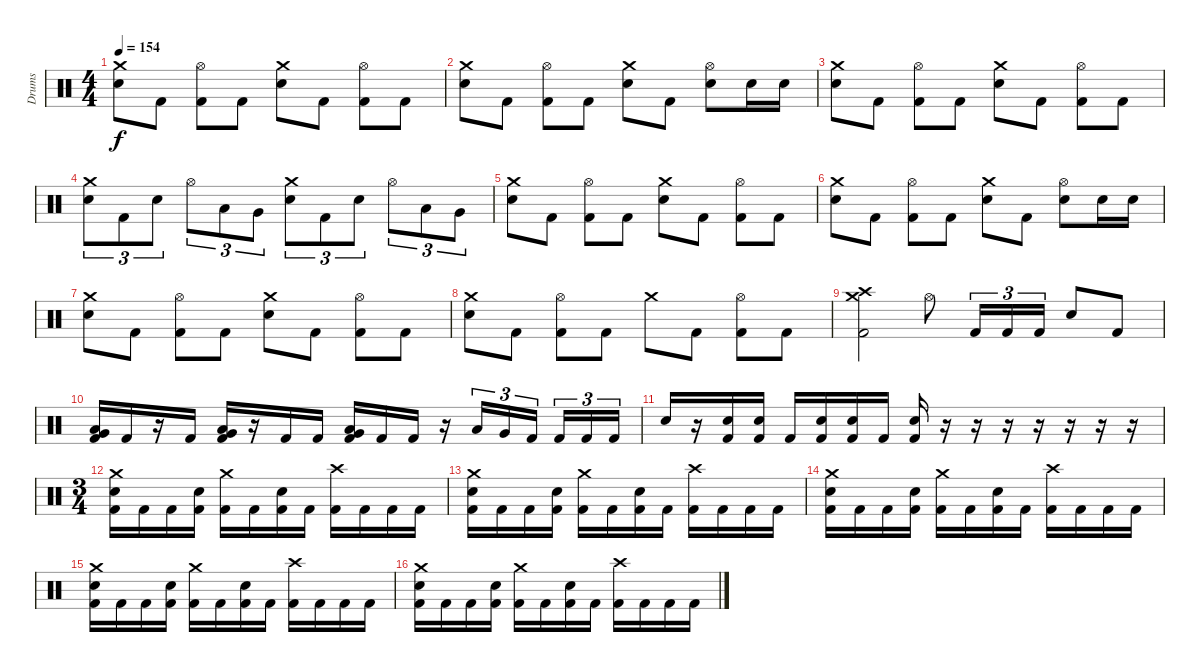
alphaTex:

\track ("Drums" "Drums") {instrument percussion}
\staff {score}
\articulation defaults
\ts (4 4)
\tempo 154
\clef neutral
\ks c
("Crash medium (hit)" "Electric Snare (hit)").8{dy f} "Kick (hit) 2".8 ("Hi-Hat (open)" "Kick (hit) 2").8 "Kick (hit) 2".8 ("Crash medium (hit)" "Electric Snare (hit)").8 "Kick (hit) 2".8 ("Hi-Hat (open)" "Kick (hit) 2").8 "Kick (hit) 2".8 |
("Crash medium (hit)" "Electric Snare (hit)").8 "Kick (hit) 2".8 ("Hi-Hat (open)" "Kick (hit) 2").8 "Kick (hit) 2".8 ("Crash medium (hit)" "Electric Snare (hit)").8 "Kick (hit) 2".8 ("Hi-Hat (open)" "Electric Snare (hit)").8 "Electric Snare (hit)".16 "Electric Snare (hit)".16 |
("Crash medium (hit)" "Electric Snare (hit)").8 "Kick (hit) 2".8 ("Hi-Hat (open)" "Kick (hit) 2").8 "Kick (hit) 2".8 ("Crash medium (hit)" "Electric Snare (hit)").8 "Kick (hit) 2".8 ("Hi-Hat (open)" "Kick (hit) 2").8 "Kick (hit) 2".8 |
("Crash medium (hit)" "Electric Snare (hit)").8{tu (3 2)} "Kick (hit) 2".8{tu (3 2)} "Electric Snare (hit)".8{tu (3 2)} "Hi-Hat (open)".8{tu (3 2)} "Low Tom (hit)".8{tu (3 2)} "Very Low Tom (hit)".8{tu (3 2)} ("Crash medium (hit)" "Electric Snare (hit)").8{tu (3 2)} "Kick (hit) 2".8{tu (3 2)} "Electric Snare (hit)".8{tu (3 2)} "Hi-Hat (open)".8{tu (3 2)} "Low Tom (hit)".8{tu (3 2)} "Very Low Tom (hit)".8{tu (3 2)} |
("Crash medium (hit)" "Electric Snare (hit)").8 "Kick (hit) 2".8 ("Hi-Hat (open)" "Kick (hit) 2").8 "Kick (hit) 2".8 ("Crash medium (hit)" "Electric Snare (hit)").8 "Kick (hit) 2".8 ("Hi-Hat (open)" "Kick (hit) 2").8 "Kick (hit) 2".8 |
("Crash medium (hit)" "Electric Snare (hit)").8 "Kick (hit) 2".8 ("Hi-Hat (open)" "Kick (hit) 2").8 "Kick (hit) 2".8 ("Crash medium (hit)" "Electric Snare (hit)").8 "Kick (hit) 2".8 ("Hi-Hat (open)" "Electric Snare (hit)").8 "Electric Snare (hit)".16 "Electric Snare (hit)".16 |
("Crash medium (hit)" "Electric Snare (hit)").8 "Kick (hit) 2".8 ("Hi-Hat (open)" "Kick (hit) 2").8 "Kick (hit) 2".8 ("Crash medium (hit)" "Electric Snare (hit)").8 "Kick (hit) 2".8 ("Hi-Hat (open)" "Kick (hit) 2").8 "Kick (hit) 2".8 |
("Crash medium (hit)" "Electric Snare (hit)").8 "Kick (hit) 2".8 ("Hi-Hat (open)" "Kick (hit) 2").8 "Kick (hit) 2".8 "Crash medium (hit)".8 "Kick (hit) 2".8 ("Hi-Hat (open)" "Kick (hit) 2").8 "Kick (hit) 2".8 |
("Crash medium (hit)" "Crash high (hit)" "Kick (hit) 2").2 "Hi-Hat (open)".8 "Kick (hit) 2".16{tu (3 2)} "Kick (hit) 2".16{tu (3 2)} "Kick (hit) 2".16{tu (3 2)} "Electric Snare (hit)".8 "Kick (hit) 2".8 |
("Very Low Tom (hit)" "Low Floor Tom (hit)" "Kick (hit) 2").16 "Kick (hit) 2".16 r.16 "Kick (hit) 2".16 ("Very Low Tom (hit)" "Low Floor Tom (hit)" "Kick (hit) 2").16 r.16 "Kick (hit) 2".16 "Kick (hit) 2".16 ("Very Low Tom (hit)" "Low Floor Tom (hit)" "Kick (hit) 2").16 "Kick (hit) 2".16 "Kick (hit) 2".16 r.16 "Low Tom (hit)".16{tu (3 2)} "Very Low Tom (hit)".16{tu (3 2)} "Kick (hit) 2".16{tu (3 2)} "Kick (hit) 2".16{tu (3 2)} "Kick (hit) 2".16{tu (3 2)} "Kick (hit) 2".16{tu (3 2)} |
"Electric Snare (hit)".16 r.16 ("Electric Snare (hit)" "Kick (hit) 2").16 ("Electric Snare (hit)" "Kick (hit) 2").16 "Kick (hit) 2".16 ("Electric Snare (hit)" "Kick (hit) 2").16 ("Electric Snare (hit)" "Kick (hit) 2").16 "Kick (hit) 2".16 ("Electric Snare (hit)" "Kick (hit) 2").16 r.16 r.16 r.16 r.16 r.16 r.16 r.16 |
\ts (3 4)
("Crash medium (hit)" "Electric Snare (hit)" "Kick (hit) 2").16 "Kick (hit) 2".16 "Kick (hit) 2".16 ("Electric Snare (hit)" "Kick (hit) 2").16 ("Crash medium (hit)" "Kick (hit) 2").16 "Kick (hit) 2".16 ("Electric Snare (hit)" "Kick (hit) 2").16 "Kick (hit) 2".16 ("Crash high (hit)" "Kick (hit) 2").16 "Kick (hit) 2".16 "Kick (hit) 2".16 "Kick (hit) 2".16 |
("Crash medium (hit)" "Electric Snare (hit)" "Kick (hit) 2").16 "Kick (hit) 2".16 "Kick (hit) 2".16 ("Electric Snare (hit)" "Kick (hit) 2").16 ("Crash medium (hit)" "Kick (hit) 2").16 "Kick (hit) 2".16 ("Electric Snare (hit)" "Kick (hit) 2").16 "Kick (hit) 2".16 ("Crash high (hit)" "Kick (hit) 2").16 "Kick (hit) 2".16 "Kick (hit) 2".16 "Kick (hit) 2".16 |
("Crash medium (hit)" "Electric Snare (hit)" "Kick (hit) 2").16 "Kick (hit) 2".16 "Kick (hit) 2".16 ("Electric Snare (hit)" "Kick (hit) 2").16 ("Crash medium (hit)" "Kick (hit) 2").16 "Kick (hit) 2".16 ("Electric Snare (hit)" "Kick (hit) 2").16 "Kick (hit) 2".16 ("Crash high (hit)" "Kick (hit) 2").16 "Kick (hit) 2".16 "Kick (hit) 2".16 "Kick (hit) 2".16 |
("Crash medium (hit)" "Electric Snare (hit)" "Kick (hit) 2").16 "Kick (hit) 2".16 "Kick (hit) 2".16 ("Electric Snare (hit)" "Kick (hit) 2").16 ("Crash medium (hit)" "Kick (hit) 2").16 "Kick (hit) 2".16 ("Electric Snare (hit)" "Kick (hit) 2").16 "Kick (hit) 2".16 ("Crash high (hit)" "Kick (hit) 2").16 "Kick (hit) 2".16 "Kick (hit) 2".16 "Kick (hit) 2".16 |
("Crash medium (hit)" "Electric Snare (hit)" "Kick (hit) 2").16 "Kick (hit) 2".16 "Kick (hit) 2".16 ("Electric Snare (hit)" "Kick (hit) 2").16 ("Crash medium (hit)" "Kick (hit) 2").16 "Kick (hit) 2".16 ("Electric Snare (hit)" "Kick (hit) 2").16 "Kick (hit) 2".16 ("Crash high (hit)" "Kick (hit) 2").16 "Kick (hit) 2".16 "Kick (hit) 2".16 "Kick (hit) 2".16
